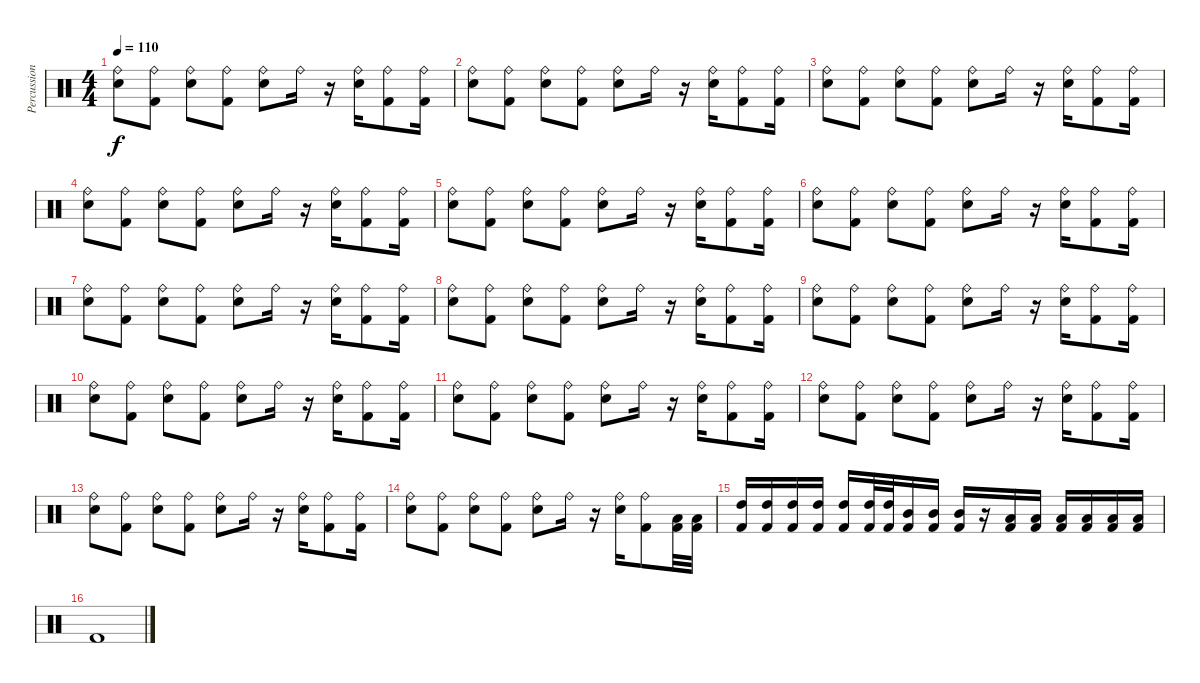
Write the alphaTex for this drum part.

\track ("Percussion" "Percussion") {instrument percussion}
\staff {score}
\articulation defaults
\ts (4 4)
\tempo 110
\clef neutral
\ks c
("Ride (bell)" "Electric Snare (hit)").8{dy f} ("Ride (bell)" "Kick (hit) 2").8 ("Ride (bell)" "Electric Snare (hit)").8 ("Ride (bell)" "Kick (hit) 2").8 ("Ride (bell)" "Electric Snare (hit)").8 "Ride (bell)".16 r.16 ("Ride (bell)" "Electric Snare (hit)").16 ("Ride (bell)" "Kick (hit) 2").8 ("Ride (bell)" "Kick (hit) 2").16 |
("Ride (bell)" "Electric Snare (hit)").8 ("Ride (bell)" "Kick (hit) 2").8 ("Ride (bell)" "Electric Snare (hit)").8 ("Ride (bell)" "Kick (hit) 2").8 ("Ride (bell)" "Electric Snare (hit)").8 "Ride (bell)".16 r.16 ("Ride (bell)" "Electric Snare (hit)").16 ("Ride (bell)" "Kick (hit) 2").8 ("Ride (bell)" "Kick (hit) 2").16 |
("Ride (bell)" "Electric Snare (hit)").8 ("Ride (bell)" "Kick (hit) 2").8 ("Ride (bell)" "Electric Snare (hit)").8 ("Ride (bell)" "Kick (hit) 2").8 ("Ride (bell)" "Electric Snare (hit)").8 "Ride (bell)".16 r.16 ("Ride (bell)" "Electric Snare (hit)").16 ("Ride (bell)" "Kick (hit) 2").8 ("Ride (bell)" "Kick (hit) 2").16 |
("Ride (bell)" "Electric Snare (hit)").8 ("Ride (bell)" "Kick (hit) 2").8 ("Ride (bell)" "Electric Snare (hit)").8 ("Ride (bell)" "Kick (hit) 2").8 ("Ride (bell)" "Electric Snare (hit)").8 "Ride (bell)".16 r.16 ("Ride (bell)" "Electric Snare (hit)").16 ("Ride (bell)" "Kick (hit) 2").8 ("Ride (bell)" "Kick (hit) 2").16 |
("Ride (bell)" "Electric Snare (hit)").8 ("Ride (bell)" "Kick (hit) 2").8 ("Ride (bell)" "Electric Snare (hit)").8 ("Ride (bell)" "Kick (hit) 2").8 ("Ride (bell)" "Electric Snare (hit)").8 "Ride (bell)".16 r.16 ("Ride (bell)" "Electric Snare (hit)").16 ("Ride (bell)" "Kick (hit) 2").8 ("Ride (bell)" "Kick (hit) 2").16 |
("Ride (bell)" "Electric Snare (hit)").8 ("Ride (bell)" "Kick (hit) 2").8 ("Ride (bell)" "Electric Snare (hit)").8 ("Ride (bell)" "Kick (hit) 2").8 ("Ride (bell)" "Electric Snare (hit)").8 "Ride (bell)".16 r.16 ("Ride (bell)" "Electric Snare (hit)").16 ("Ride (bell)" "Kick (hit) 2").8 ("Ride (bell)" "Kick (hit) 2").16 |
("Ride (bell)" "Electric Snare (hit)").8 ("Ride (bell)" "Kick (hit) 2").8 ("Ride (bell)" "Electric Snare (hit)").8 ("Ride (bell)" "Kick (hit) 2").8 ("Ride (bell)" "Electric Snare (hit)").8 "Ride (bell)".16 r.16 ("Ride (bell)" "Electric Snare (hit)").16 ("Ride (bell)" "Kick (hit) 2").8 ("Ride (bell)" "Kick (hit) 2").16 |
("Ride (bell)" "Electric Snare (hit)").8 ("Ride (bell)" "Kick (hit) 2").8 ("Ride (bell)" "Electric Snare (hit)").8 ("Ride (bell)" "Kick (hit) 2").8 ("Ride (bell)" "Electric Snare (hit)").8 "Ride (bell)".16 r.16 ("Ride (bell)" "Electric Snare (hit)").16 ("Ride (bell)" "Kick (hit) 2").8 ("Ride (bell)" "Kick (hit) 2").16 |
("Ride (bell)" "Electric Snare (hit)").8 ("Ride (bell)" "Kick (hit) 2").8 ("Ride (bell)" "Electric Snare (hit)").8 ("Ride (bell)" "Kick (hit) 2").8 ("Ride (bell)" "Electric Snare (hit)").8 "Ride (bell)".16 r.16 ("Ride (bell)" "Electric Snare (hit)").16 ("Ride (bell)" "Kick (hit) 2").8 ("Ride (bell)" "Kick (hit) 2").16 |
("Ride (bell)" "Electric Snare (hit)").8 ("Ride (bell)" "Kick (hit) 2").8 ("Ride (bell)" "Electric Snare (hit)").8 ("Ride (bell)" "Kick (hit) 2").8 ("Ride (bell)" "Electric Snare (hit)").8 "Ride (bell)".16 r.16 ("Ride (bell)" "Electric Snare (hit)").16 ("Ride (bell)" "Kick (hit) 2").8 ("Ride (bell)" "Kick (hit) 2").16 |
("Ride (bell)" "Electric Snare (hit)").8 ("Ride (bell)" "Kick (hit) 2").8 ("Ride (bell)" "Electric Snare (hit)").8 ("Ride (bell)" "Kick (hit) 2").8 ("Ride (bell)" "Electric Snare (hit)").8 "Ride (bell)".16 r.16 ("Ride (bell)" "Electric Snare (hit)").16 ("Ride (bell)" "Kick (hit) 2").8 ("Ride (bell)" "Kick (hit) 2").16 |
("Ride (bell)" "Electric Snare (hit)").8 ("Ride (bell)" "Kick (hit) 2").8 ("Ride (bell)" "Electric Snare (hit)").8 ("Ride (bell)" "Kick (hit) 2").8 ("Ride (bell)" "Electric Snare (hit)").8 "Ride (bell)".16 r.16 ("Ride (bell)" "Electric Snare (hit)").16 ("Ride (bell)" "Kick (hit) 2").8 ("Ride (bell)" "Kick (hit) 2").16 |
("Ride (bell)" "Electric Snare (hit)").8 ("Ride (bell)" "Kick (hit) 2").8 ("Ride (bell)" "Electric Snare (hit)").8 ("Ride (bell)" "Kick (hit) 2").8 ("Ride (bell)" "Electric Snare (hit)").8 "Ride (bell)".16 r.16 ("Ride (bell)" "Electric Snare (hit)").16 ("Ride (bell)" "Kick (hit) 2").8 ("Ride (bell)" "Kick (hit) 2").16 |
("Ride (bell)" "Electric Snare (hit)").8 ("Ride (bell)" "Kick (hit) 2").8 ("Ride (bell)" "Electric Snare (hit)").8 ("Ride (bell)" "Kick (hit) 2").8 ("Ride (bell)" "Electric Snare (hit)").8 "Ride (bell)".16 r.16 ("Ride (bell)" "Electric Snare (hit)").16 ("Ride (bell)" "Kick (hit) 2").8 ("Low Tom (hit)" "Kick (hit) 2").32 ("Low Tom (hit)" "Kick (hit) 2").32 |
("High Tom (hit)" "Kick (hit) 2").16 ("High Tom (hit)" "Kick (hit) 2").16 ("High Tom (hit)" "Kick (hit) 2").16 ("High Tom (hit)" "Kick (hit) 2").16 ("High Tom (hit)" "Kick (hit) 2").16 ("High Tom (hit)" "Kick (hit) 2").32 ("High Tom (hit)" "Kick (hit) 2").32 ("Mid Tom (hit)" "Kick (hit) 2").16 ("Mid Tom (hit)" "Kick (hit) 2").16 ("Mid Tom (hit)" "Kick (hit) 2").16 r.16 ("Low Tom (hit)" "Kick (hit) 2").16 ("Low Tom (hit)" "Kick (hit) 2").16 ("Low Tom (hit)" "Kick (hit) 2").16 ("Low Tom (hit)" "Kick (hit) 2").16 ("Low Tom (hit)" "Kick (hit) 2").16 ("Low Tom (hit)" "Kick (hit) 2").16 |
"Kick (hit) 2".1
